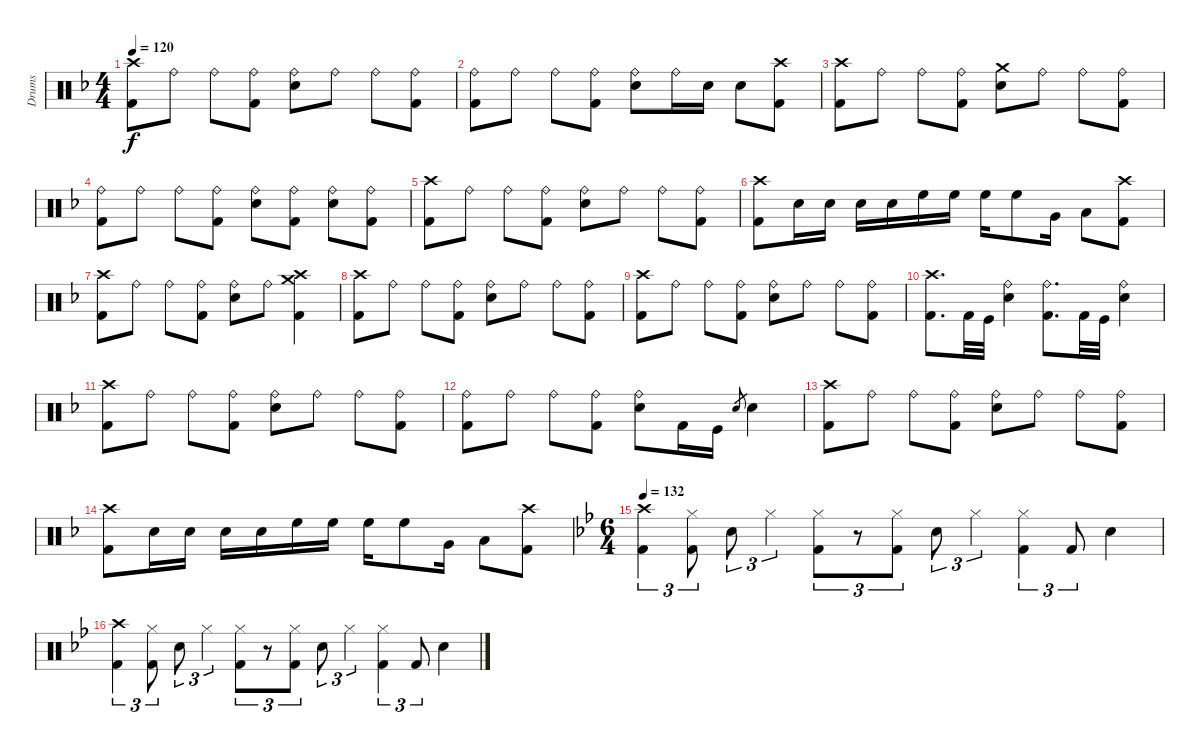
\track ("Drums" "Drums") {instrument percussion}
\staff {score}
\articulation defaults
\ts (4 4)
\tempo 120
\clef neutral
\ks f
("Crash high (hit)" "Kick (hit) 2").8{dy f} "Ride (bell)".8 "Ride (bell)".8 ("Ride (bell)" "Kick (hit) 2").8 ("Ride (bell)" "Electric Snare (hit)").8 "Ride (bell)".8 "Ride (bell)".8 ("Ride (bell)" "Kick (hit) 2").8 |
("Ride (bell)" "Kick (hit) 2").8 "Ride (bell)".8 "Ride (bell)".8 ("Ride (bell)" "Kick (hit) 2").8 ("Ride (bell)" "Electric Snare (hit)").8 "Ride (bell)".16 "Electric Snare (hit)".16 "Electric Snare (hit)".8 ("Crash high (hit)" "Kick (hit) 2").8 |
("Crash high (hit)" "Kick (hit) 2").8 "Ride (bell)".8 "Ride (bell)".8 ("Ride (bell)" "Kick (hit) 2").8 ("Crash medium (hit)" "Electric Snare (hit)").8 "Ride (bell)".8 "Ride (bell)".8 ("Ride (bell)" "Kick (hit) 2").8 |
("Ride (bell)" "Kick (hit) 2").8 "Ride (bell)".8 "Ride (bell)".8 ("Ride (bell)" "Kick (hit) 2").8 ("Ride (bell)" "Electric Snare (hit)").8 ("Ride (bell)" "Kick (hit) 2").8 ("Ride (bell)" "Electric Snare (hit)").8 ("Ride (bell)" "Kick (hit) 2").8 |
("Crash high (hit)" "Kick (hit) 2").8 "Ride (bell)".8 "Ride (bell)".8 ("Ride (bell)" "Kick (hit) 2").8 ("Ride (bell)" "Electric Snare (hit)").8 "Ride (bell)".8 "Ride (bell)".8 ("Ride (bell)" "Kick (hit) 2").8 |
("Crash high (hit)" "Kick (hit) 2").8 "Electric Snare (hit)".16 "Electric Snare (hit)".16 "Electric Snare (hit)".16 "Electric Snare (hit)".16 "High Floor Tom (hit)".16 "High Floor Tom (hit)".16 "High Floor Tom (hit)".16 "High Floor Tom (hit)".8 "Very Low Tom (hit)".16 "Low Floor Tom (hit)".8 ("Crash high (hit)" "Kick (hit) 2").8 |
("Crash high (hit)" "Kick (hit) 2").8 "Ride (bell)".8 "Ride (bell)".8 ("Ride (bell)" "Kick (hit) 2").8 ("Ride (bell)" "Electric Snare (hit)").8 "Ride (bell)".8 ("Crash high (hit)" "Crash medium (hit)" "Kick (hit) 2").4 |
("Crash high (hit)" "Kick (hit) 2").8 "Ride (bell)".8 "Ride (bell)".8 ("Ride (bell)" "Kick (hit) 2").8 ("Ride (bell)" "Electric Snare (hit)").8 "Ride (bell)".8 "Ride (bell)".8 ("Ride (bell)" "Kick (hit) 2").8 |
("Crash high (hit)" "Kick (hit) 2").8 "Ride (bell)".8 "Ride (bell)".8 ("Ride (bell)" "Kick (hit) 2").8 ("Ride (bell)" "Electric Snare (hit)").8 "Ride (bell)".8 "Ride (bell)".8 ("Ride (bell)" "Kick (hit) 2").8 |
("Crash high (hit)" "Kick (hit) 2").8{d} "Kick (hit) 2".32 "Kick (hit)".32 ("Ride (bell)" "Electric Snare (hit)").4 ("Ride (bell)" "Kick (hit) 2").8{d} "Kick (hit) 2".32 "Kick (hit)".32 ("Ride (bell)" "Electric Snare (hit)").4 |
("Crash high (hit)" "Kick (hit) 2").8 "Ride (bell)".8 "Ride (bell)".8 ("Ride (bell)" "Kick (hit) 2").8 ("Ride (bell)" "Electric Snare (hit)").8 "Ride (bell)".8 "Ride (bell)".8 ("Ride (bell)" "Kick (hit) 2").8 |
("Ride (bell)" "Kick (hit) 2").8 "Ride (bell)".8 "Ride (bell)".8 ("Ride (bell)" "Kick (hit) 2").8 ("Ride (bell)" "Electric Snare (hit)").8 "Kick (hit) 2".16 "Kick (hit)".16 "Electric Snare (hit)".8{gr} "Electric Snare (hit)".4 |
("Crash high (hit)" "Kick (hit) 2").8 "Ride (bell)".8 "Ride (bell)".8 ("Ride (bell)" "Kick (hit) 2").8 ("Ride (bell)" "Electric Snare (hit)").8 "Ride (bell)".8 "Ride (bell)".8 ("Ride (bell)" "Kick (hit) 2").8 |
("Crash high (hit)" "Kick (hit) 2").8 "Electric Snare (hit)".16 "Electric Snare (hit)".16 "Electric Snare (hit)".16 "Electric Snare (hit)".16 "High Floor Tom (hit)".16 "High Floor Tom (hit)".16 "High Floor Tom (hit)".16 "High Floor Tom (hit)".8 "Very Low Tom (hit)".16 "Low Floor Tom (hit)".8 ("Crash high (hit)" "Kick (hit) 2").8 |
\ts (6 4)
\tempo 132
\ks bb
("Crash high (hit)" "Kick (hit) 2").4{tu (3 2)} ("Hi-Hat (closed)" "Kick (hit) 2").8{tu (3 2)} "Electric Snare (hit)".8{tu (3 2)} "Hi-Hat (closed)".4{tu (3 2)} ("Hi-Hat (closed)" "Kick (hit) 2").8{tu (3 2)} r.8{tu (3 2)} ("Hi-Hat (closed)" "Kick (hit) 2").8{tu (3 2)} "Electric Snare (hit)".8{tu (3 2)} "Hi-Hat (closed)".4{tu (3 2)} ("Hi-Hat (closed)" "Kick (hit) 2").4{tu (3 2)} "Kick (hit) 2".8{tu (3 2)} "Electric Snare (hit)".4 |
("Crash high (hit)" "Kick (hit) 2").4{tu (3 2)} ("Hi-Hat (closed)" "Kick (hit) 2").8{tu (3 2)} "Electric Snare (hit)".8{tu (3 2)} "Hi-Hat (closed)".4{tu (3 2)} ("Hi-Hat (closed)" "Kick (hit) 2").8{tu (3 2)} r.8{tu (3 2)} ("Hi-Hat (closed)" "Kick (hit) 2").8{tu (3 2)} "Electric Snare (hit)".8{tu (3 2)} "Hi-Hat (closed)".4{tu (3 2)} ("Hi-Hat (closed)" "Kick (hit) 2").4{tu (3 2)} "Kick (hit) 2".8{tu (3 2)} "Electric Snare (hit)".4
